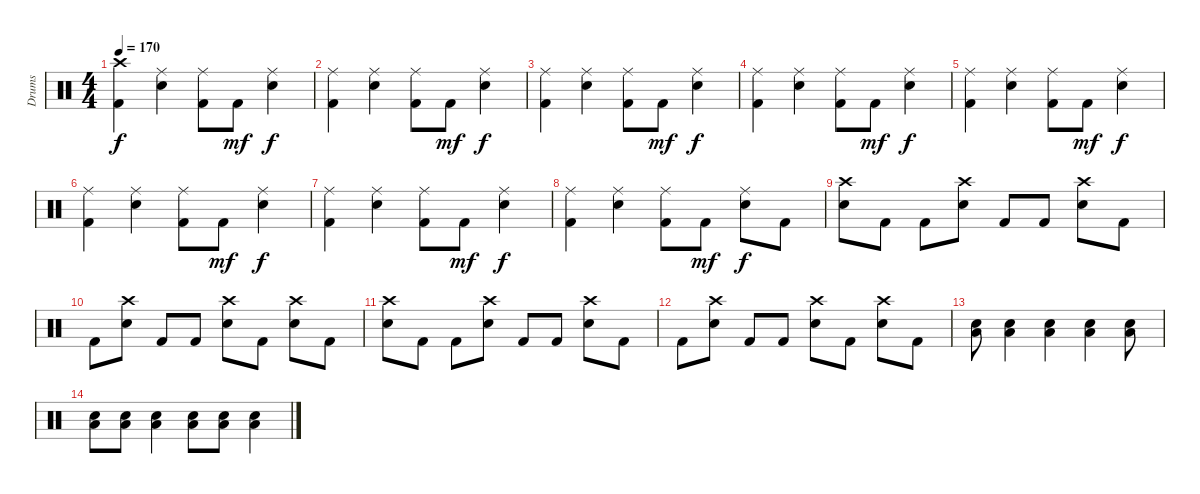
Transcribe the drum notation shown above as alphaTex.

\track ("Drums" "Drums") {instrument percussion}
\staff {score}
\articulation defaults
\ts (4 4)
\tempo 170
\clef neutral
\ks c
("Crash high (hit)" "Kick (hit) 2").4{dy f} ("Ride (middle)" "Snare (hit) 2").4 ("Ride (middle)" "Kick (hit) 2").8 "Kick (hit) 2".8{dy mf} ("Ride (middle)" "Snare (hit) 2").4{dy f} |
("Ride (middle)" "Kick (hit) 2").4 ("Ride (middle)" "Snare (hit) 2").4 ("Ride (middle)" "Kick (hit) 2").8 "Kick (hit) 2".8{dy mf} ("Ride (middle)" "Snare (hit) 2").4{dy f} |
("Ride (middle)" "Kick (hit) 2").4 ("Ride (middle)" "Snare (hit) 2").4 ("Ride (middle)" "Kick (hit) 2").8 "Kick (hit) 2".8{dy mf} ("Ride (middle)" "Snare (hit) 2").4{dy f} |
("Ride (middle)" "Kick (hit) 2").4 ("Ride (middle)" "Snare (hit) 2").4 ("Ride (middle)" "Kick (hit) 2").8 "Kick (hit) 2".8{dy mf} ("Ride (middle)" "Snare (hit) 2").4{dy f} |
("Ride (middle)" "Kick (hit) 2").4 ("Ride (middle)" "Snare (hit) 2").4 ("Ride (middle)" "Kick (hit) 2").8 "Kick (hit) 2".8{dy mf} ("Ride (middle)" "Snare (hit) 2").4{dy f} |
("Ride (middle)" "Kick (hit) 2").4 ("Ride (middle)" "Snare (hit) 2").4 ("Ride (middle)" "Kick (hit) 2").8 "Kick (hit) 2".8{dy mf} ("Ride (middle)" "Snare (hit) 2").4{dy f} |
("Ride (middle)" "Kick (hit) 2").4 ("Ride (middle)" "Snare (hit) 2").4 ("Ride (middle)" "Kick (hit) 2").8 "Kick (hit) 2".8{dy mf} ("Ride (middle)" "Snare (hit) 2").4{dy f} |
("Ride (middle)" "Kick (hit) 2").4 ("Ride (middle)" "Snare (hit) 2").4 ("Ride (middle)" "Kick (hit) 2").8 "Kick (hit) 2".8{dy mf} ("Ride (middle)" "Snare (hit) 2").8{dy f} "Kick (hit) 2".8 |
("Crash high (hit)" "Snare (hit) 2").8 "Kick (hit) 2".8 "Kick (hit) 2".8 ("Crash high (hit)" "Snare (hit) 2").8 "Kick (hit) 2".8 "Kick (hit) 2".8 ("Crash high (hit)" "Snare (hit) 2").8 "Kick (hit) 2".8 |
"Kick (hit) 2".8 ("Crash high (hit)" "Snare (hit) 2").8 "Kick (hit) 2".8 "Kick (hit) 2".8 ("Crash high (hit)" "Snare (hit) 2").8 "Kick (hit) 2".8 ("Crash high (hit)" "Snare (hit) 2").8 "Kick (hit) 2".8 |
("Crash high (hit)" "Snare (hit) 2").8 "Kick (hit) 2".8 "Kick (hit) 2".8 ("Crash high (hit)" "Snare (hit) 2").8 "Kick (hit) 2".8 "Kick (hit) 2".8 ("Crash high (hit)" "Snare (hit) 2").8 "Kick (hit) 2".8 |
"Kick (hit) 2".8 ("Crash high (hit)" "Snare (hit) 2").8 "Kick (hit) 2".8 "Kick (hit) 2".8 ("Crash high (hit)" "Snare (hit) 2").8 "Kick (hit) 2".8 ("Crash high (hit)" "Snare (hit) 2").8 "Kick (hit) 2".8 |
("Snare (hit) 2" "Low Floor Tom (hit)").8 ("Snare (hit) 2" "Low Floor Tom (hit)").4 ("Snare (hit) 2" "Low Floor Tom (hit)").4 ("Snare (hit) 2" "Low Floor Tom (hit)").4 ("Snare (hit) 2" "Low Floor Tom (hit)").8 |
("Snare (hit) 2" "Low Floor Tom (hit)").8 ("Snare (hit) 2" "Low Floor Tom (hit)").8 ("Snare (hit) 2" "Low Floor Tom (hit)").4 ("Snare (hit) 2" "Low Floor Tom (hit)").8 ("Snare (hit) 2" "Low Floor Tom (hit)").8 ("Snare (hit) 2" "Low Floor Tom (hit)").4
